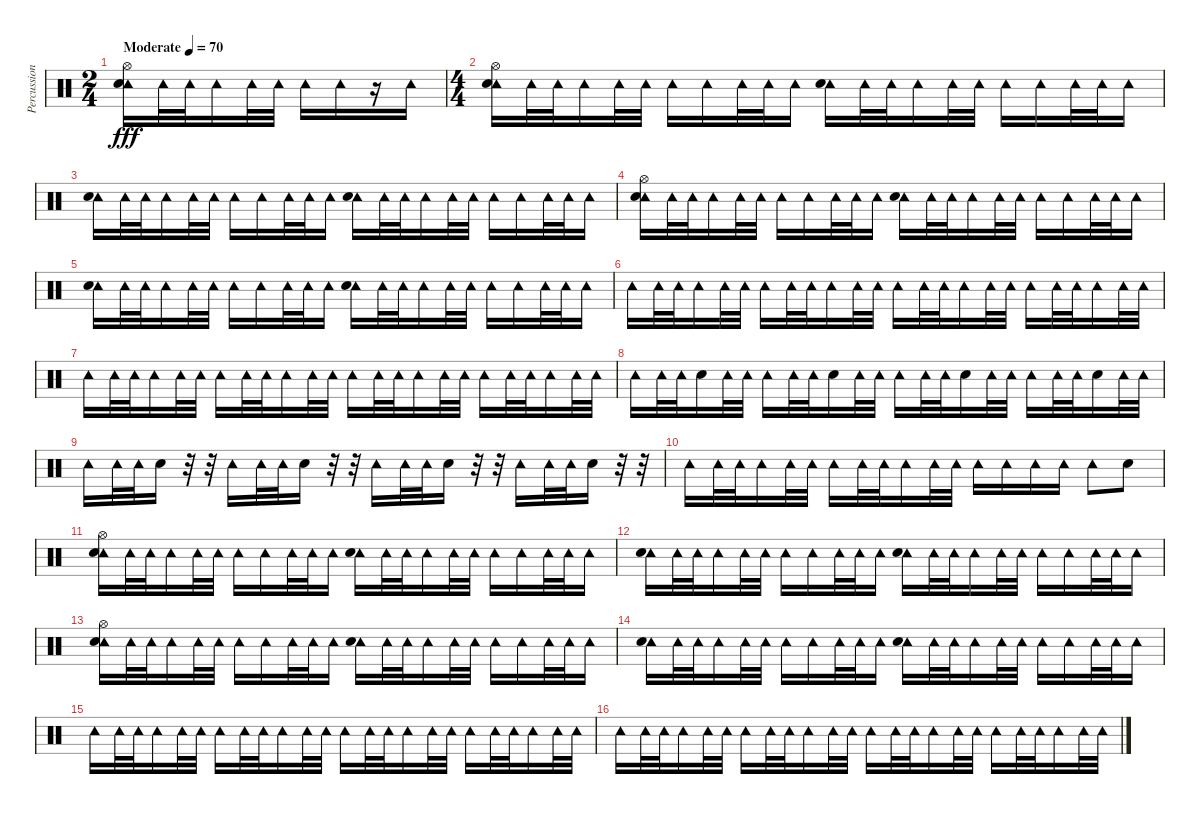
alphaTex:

\track ("Percussion" "Percussion") {instrument percussion}
\staff
\articulation defaults
\ts (2 4)
\tempo (70 "Moderate")
\clef neutral
\ks c
("Tambourine (hit)" "Hi-Hat (open)" "Electric Snare (hit)").16{dy fff} "Tambourine (hit)".32 "Tambourine (hit)".32 "Tambourine (hit)".16 "Tambourine (hit)".32 "Tambourine (hit)".32 "Tambourine (hit)".16 "Tambourine (hit)".16 r.16 "Tambourine (hit)".16 |
\ts (4 4)
("Tambourine (hit)" "Hi-Hat (open)" "Electric Snare (hit)").16 "Tambourine (hit)".32 "Tambourine (hit)".32 "Tambourine (hit)".16 "Tambourine (hit)".32 "Tambourine (hit)".32 "Tambourine (hit)".16 "Tambourine (hit)".16 "Tambourine (hit)".32 "Tambourine (hit)".32 "Tambourine (hit)".16 ("Tambourine (hit)" "Electric Snare (hit)").16 "Tambourine (hit)".32 "Tambourine (hit)".32 "Tambourine (hit)".16 "Tambourine (hit)".32 "Tambourine (hit)".32 "Tambourine (hit)".16 "Tambourine (hit)".16 "Tambourine (hit)".32 "Tambourine (hit)".32 "Tambourine (hit)".16 |
("Tambourine (hit)" "Electric Snare (hit)").16 "Tambourine (hit)".32 "Tambourine (hit)".32 "Tambourine (hit)".16 "Tambourine (hit)".32 "Tambourine (hit)".32 "Tambourine (hit)".16 "Tambourine (hit)".16 "Tambourine (hit)".32 "Tambourine (hit)".32 "Tambourine (hit)".16 ("Tambourine (hit)" "Electric Snare (hit)").16 "Tambourine (hit)".32 "Tambourine (hit)".32 "Tambourine (hit)".16 "Tambourine (hit)".32 "Tambourine (hit)".32 "Tambourine (hit)".16 "Tambourine (hit)".16 "Tambourine (hit)".32 "Tambourine (hit)".32 "Tambourine (hit)".16 |
("Tambourine (hit)" "Hi-Hat (open)" "Electric Snare (hit)").16 "Tambourine (hit)".32 "Tambourine (hit)".32 "Tambourine (hit)".16 "Tambourine (hit)".32 "Tambourine (hit)".32 "Tambourine (hit)".16 "Tambourine (hit)".16 "Tambourine (hit)".32 "Tambourine (hit)".32 "Tambourine (hit)".16 ("Tambourine (hit)" "Electric Snare (hit)").16 "Tambourine (hit)".32 "Tambourine (hit)".32 "Tambourine (hit)".16 "Tambourine (hit)".32 "Tambourine (hit)".32 "Tambourine (hit)".16 "Tambourine (hit)".16 "Tambourine (hit)".32 "Tambourine (hit)".32 "Tambourine (hit)".16 |
("Tambourine (hit)" "Electric Snare (hit)").16 "Tambourine (hit)".32 "Tambourine (hit)".32 "Tambourine (hit)".16 "Tambourine (hit)".32 "Tambourine (hit)".32 "Tambourine (hit)".16 "Tambourine (hit)".16 "Tambourine (hit)".32 "Tambourine (hit)".32 "Tambourine (hit)".16 ("Tambourine (hit)" "Electric Snare (hit)").16 "Tambourine (hit)".32 "Tambourine (hit)".32 "Tambourine (hit)".16 "Tambourine (hit)".32 "Tambourine (hit)".32 "Tambourine (hit)".16 "Tambourine (hit)".16 "Tambourine (hit)".32 "Tambourine (hit)".32 "Tambourine (hit)".16 |
"Tambourine (hit)".16 "Tambourine (hit)".32 "Tambourine (hit)".32 "Tambourine (hit)".16 "Tambourine (hit)".32 "Tambourine (hit)".32 "Tambourine (hit)".16 "Tambourine (hit)".32 "Tambourine (hit)".32 "Tambourine (hit)".16 "Tambourine (hit)".32 "Tambourine (hit)".32 "Tambourine (hit)".16 "Tambourine (hit)".32 "Tambourine (hit)".32 "Tambourine (hit)".16 "Tambourine (hit)".32 "Tambourine (hit)".32 "Tambourine (hit)".16 "Tambourine (hit)".32 "Tambourine (hit)".32 "Tambourine (hit)".16 "Tambourine (hit)".32 "Tambourine (hit)".32 |
"Tambourine (hit)".16 "Tambourine (hit)".32 "Tambourine (hit)".32 "Tambourine (hit)".16 "Tambourine (hit)".32 "Tambourine (hit)".32 "Tambourine (hit)".16 "Tambourine (hit)".32 "Tambourine (hit)".32 "Tambourine (hit)".16 "Tambourine (hit)".32 "Tambourine (hit)".32 "Tambourine (hit)".16 "Tambourine (hit)".32 "Tambourine (hit)".32 "Tambourine (hit)".16 "Tambourine (hit)".32 "Tambourine (hit)".32 "Tambourine (hit)".16 "Tambourine (hit)".32 "Tambourine (hit)".32 "Tambourine (hit)".16 "Tambourine (hit)".32 "Tambourine (hit)".32 |
"Tambourine (hit)".16 "Tambourine (hit)".32 "Tambourine (hit)".32 "Electric Snare (hit)".16 "Tambourine (hit)".32 "Tambourine (hit)".32 "Tambourine (hit)".16 "Tambourine (hit)".32 "Tambourine (hit)".32 "Electric Snare (hit)".16 "Tambourine (hit)".32 "Tambourine (hit)".32 "Tambourine (hit)".16 "Tambourine (hit)".32 "Tambourine (hit)".32 "Electric Snare (hit)".16 "Tambourine (hit)".32 "Tambourine (hit)".32 "Tambourine (hit)".16 "Tambourine (hit)".32 "Tambourine (hit)".32 "Electric Snare (hit)".16 "Tambourine (hit)".32 "Tambourine (hit)".32 |
"Tambourine (hit)".16 "Tambourine (hit)".32 "Tambourine (hit)".32 "Electric Snare (hit)".16 r.32 r.32 "Tambourine (hit)".16 "Tambourine (hit)".32 "Tambourine (hit)".32 "Electric Snare (hit)".16 r.32 r.32 "Tambourine (hit)".16 "Tambourine (hit)".32 "Tambourine (hit)".32 "Electric Snare (hit)".16 r.32 r.32 "Tambourine (hit)".16 "Tambourine (hit)".32 "Tambourine (hit)".32 "Electric Snare (hit)".16 r.32 r.32 |
"Tambourine (hit)".16 "Tambourine (hit)".32 "Tambourine (hit)".32 "Tambourine (hit)".16 "Tambourine (hit)".32 "Tambourine (hit)".32 "Tambourine (hit)".16 "Tambourine (hit)".32 "Tambourine (hit)".32 "Tambourine (hit)".16 "Tambourine (hit)".32 "Tambourine (hit)".32 "Tambourine (hit)".16 "Tambourine (hit)".16 "Tambourine (hit)".16 "Tambourine (hit)".16 "Tambourine (hit)".8 "Electric Snare (hit)".8 |
("Tambourine (hit)" "Hi-Hat (open)" "Electric Snare (hit)").16 "Tambourine (hit)".32 "Tambourine (hit)".32 "Tambourine (hit)".16 "Tambourine (hit)".32 "Tambourine (hit)".32 "Tambourine (hit)".16 "Tambourine (hit)".16 "Tambourine (hit)".32 "Tambourine (hit)".32 "Tambourine (hit)".16 ("Tambourine (hit)" "Electric Snare (hit)").16 "Tambourine (hit)".32 "Tambourine (hit)".32 "Tambourine (hit)".16 "Tambourine (hit)".32 "Tambourine (hit)".32 "Tambourine (hit)".16 "Tambourine (hit)".16 "Tambourine (hit)".32 "Tambourine (hit)".32 "Tambourine (hit)".16 |
("Tambourine (hit)" "Electric Snare (hit)").16 "Tambourine (hit)".32 "Tambourine (hit)".32 "Tambourine (hit)".16 "Tambourine (hit)".32 "Tambourine (hit)".32 "Tambourine (hit)".16 "Tambourine (hit)".16 "Tambourine (hit)".32 "Tambourine (hit)".32 "Tambourine (hit)".16 ("Tambourine (hit)" "Electric Snare (hit)").16 "Tambourine (hit)".32 "Tambourine (hit)".32 "Tambourine (hit)".16 "Tambourine (hit)".32 "Tambourine (hit)".32 "Tambourine (hit)".16 "Tambourine (hit)".16 "Tambourine (hit)".32 "Tambourine (hit)".32 "Tambourine (hit)".16 |
("Tambourine (hit)" "Hi-Hat (open)" "Electric Snare (hit)").16 "Tambourine (hit)".32 "Tambourine (hit)".32 "Tambourine (hit)".16 "Tambourine (hit)".32 "Tambourine (hit)".32 "Tambourine (hit)".16 "Tambourine (hit)".16 "Tambourine (hit)".32 "Tambourine (hit)".32 "Tambourine (hit)".16 ("Tambourine (hit)" "Electric Snare (hit)").16 "Tambourine (hit)".32 "Tambourine (hit)".32 "Tambourine (hit)".16 "Tambourine (hit)".32 "Tambourine (hit)".32 "Tambourine (hit)".16 "Tambourine (hit)".16 "Tambourine (hit)".32 "Tambourine (hit)".32 "Tambourine (hit)".16 |
("Tambourine (hit)" "Electric Snare (hit)").16 "Tambourine (hit)".32 "Tambourine (hit)".32 "Tambourine (hit)".16 "Tambourine (hit)".32 "Tambourine (hit)".32 "Tambourine (hit)".16 "Tambourine (hit)".16 "Tambourine (hit)".32 "Tambourine (hit)".32 "Tambourine (hit)".16 ("Tambourine (hit)" "Electric Snare (hit)").16 "Tambourine (hit)".32 "Tambourine (hit)".32 "Tambourine (hit)".16 "Tambourine (hit)".32 "Tambourine (hit)".32 "Tambourine (hit)".16 "Tambourine (hit)".16 "Tambourine (hit)".32 "Tambourine (hit)".32 "Tambourine (hit)".16 |
"Tambourine (hit)".16 "Tambourine (hit)".32 "Tambourine (hit)".32 "Tambourine (hit)".16 "Tambourine (hit)".32 "Tambourine (hit)".32 "Tambourine (hit)".16 "Tambourine (hit)".32 "Tambourine (hit)".32 "Tambourine (hit)".16 "Tambourine (hit)".32 "Tambourine (hit)".32 "Tambourine (hit)".16 "Tambourine (hit)".32 "Tambourine (hit)".32 "Tambourine (hit)".16 "Tambourine (hit)".32 "Tambourine (hit)".32 "Tambourine (hit)".16 "Tambourine (hit)".32 "Tambourine (hit)".32 "Tambourine (hit)".16 "Tambourine (hit)".32 "Tambourine (hit)".32 |
"Tambourine (hit)".16 "Tambourine (hit)".32 "Tambourine (hit)".32 "Tambourine (hit)".16 "Tambourine (hit)".32 "Tambourine (hit)".32 "Tambourine (hit)".16 "Tambourine (hit)".32 "Tambourine (hit)".32 "Tambourine (hit)".16 "Tambourine (hit)".32 "Tambourine (hit)".32 "Tambourine (hit)".16 "Tambourine (hit)".32 "Tambourine (hit)".32 "Tambourine (hit)".16 "Tambourine (hit)".32 "Tambourine (hit)".32 "Tambourine (hit)".16 "Tambourine (hit)".32 "Tambourine (hit)".32 "Tambourine (hit)".16 "Tambourine (hit)".32 "Tambourine (hit)".32
